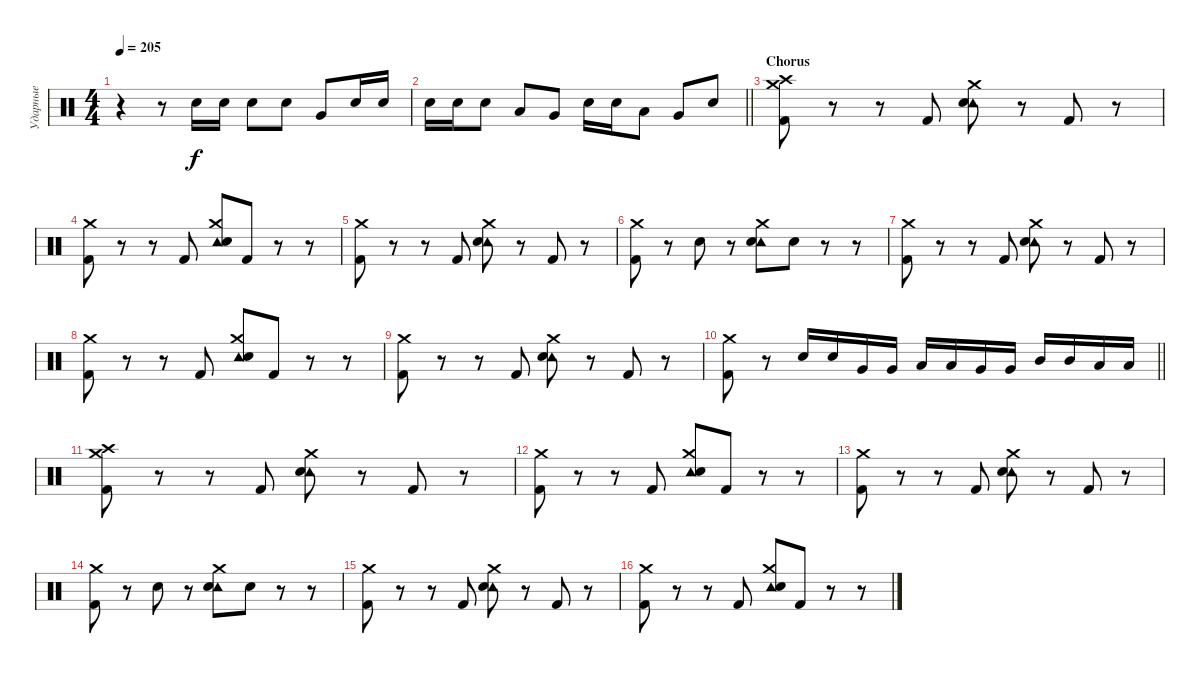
\track ("Ударные" "Ударные") {instrument percussion}
\staff {score}
\articulation defaults
\ts (4 4)
\tempo 205
\clef neutral
\ks c
r.4{dy f} r.8 "Electric Snare (hit)".16 "Electric Snare (hit)".16 "Electric Snare (hit)".8 "Electric Snare (hit)".8 "Very Low Tom (hit)".8 "Electric Snare (hit)".16 "Electric Snare (hit)".16 |
\barLineRight lightlight "Electric Snare (hit)".16 "Electric Snare (hit)".16 "Electric Snare (hit)".8 "Low Tom (hit)".8 "Very Low Tom (hit)".8 "Electric Snare (hit)".16 "Electric Snare (hit)".16 "Low Tom (hit)".8 "Very Low Tom (hit)".8 "Electric Snare (hit)".8
|
\section ("" "Chorus")
("Crash high (hit)" "Crash medium (hit)" "Kick (hit) 2").8 r.8 r.8 "Kick (hit) 2".8 ("Crash medium (hit)" "Tambourine (hit)" "Electric Snare (hit)").8 r.8 "Kick (hit) 2".8 r.8 |
("Crash medium (hit)" "Kick (hit) 2").8 r.8 r.8 "Kick (hit) 2".8 ("Crash medium (hit)" "Tambourine (hit)" "Electric Snare (hit)").8 "Kick (hit) 2".8 r.8 r.8 |
("Crash medium (hit)" "Kick (hit) 2").8 r.8 r.8 "Kick (hit) 2".8 ("Crash medium (hit)" "Tambourine (hit)" "Electric Snare (hit)").8 r.8 "Kick (hit) 2".8 r.8 |
("Crash medium (hit)" "Kick (hit) 2").8 r.8 "Electric Snare (hit)".8 r.8 ("Crash medium (hit)" "Tambourine (hit)" "Electric Snare (hit)").8 "Electric Snare (hit)".8 r.8 r.8 |
("Crash medium (hit)" "Kick (hit) 2").8 r.8 r.8 "Kick (hit) 2".8 ("Crash medium (hit)" "Tambourine (hit)" "Electric Snare (hit)").8 r.8 "Kick (hit) 2".8 r.8 |
("Crash medium (hit)" "Kick (hit) 2").8 r.8 r.8 "Kick (hit) 2".8 ("Crash medium (hit)" "Tambourine (hit)" "Electric Snare (hit)").8 "Kick (hit) 2".8 r.8 r.8 |
("Crash medium (hit)" "Kick (hit) 2").8 r.8 r.8 "Kick (hit) 2".8 ("Crash medium (hit)" "Tambourine (hit)" "Electric Snare (hit)").8 r.8 "Kick (hit) 2".8 r.8 |
\barLineRight lightlight
("Crash medium (hit)" "Kick (hit) 2").8 r.8 "Electric Snare (hit)".16 "Electric Snare (hit)".16 "Very Low Tom (hit)".16 "Very Low Tom (hit)".16 "Low Tom (hit)".16 "Low Tom (hit)".16 "Very Low Tom (hit)".16 "Very Low Tom (hit)".16 "Mid Tom (hit)".16 "Mid Tom (hit)".16 "Low Tom (hit)".16 "Low Tom (hit)".16 |
("Crash high (hit)" "Crash medium (hit)" "Kick (hit) 2").8 r.8 r.8 "Kick (hit) 2".8 ("Crash medium (hit)" "Tambourine (hit)" "Electric Snare (hit)").8 r.8 "Kick (hit) 2".8 r.8 |
("Crash medium (hit)" "Kick (hit) 2").8 r.8 r.8 "Kick (hit) 2".8 ("Crash medium (hit)" "Tambourine (hit)" "Electric Snare (hit)").8 "Kick (hit) 2".8 r.8 r.8 |
("Crash medium (hit)" "Kick (hit) 2").8 r.8 r.8 "Kick (hit) 2".8 ("Crash medium (hit)" "Tambourine (hit)" "Electric Snare (hit)").8 r.8 "Kick (hit) 2".8 r.8 |
("Crash medium (hit)" "Kick (hit) 2").8 r.8 "Electric Snare (hit)".8 r.8 ("Crash medium (hit)" "Tambourine (hit)" "Electric Snare (hit)").8 "Electric Snare (hit)".8 r.8 r.8 |
("Crash medium (hit)" "Kick (hit) 2").8 r.8 r.8 "Kick (hit) 2".8 ("Crash medium (hit)" "Tambourine (hit)" "Electric Snare (hit)").8 r.8 "Kick (hit) 2".8 r.8 |
("Crash medium (hit)" "Kick (hit) 2").8 r.8 r.8 "Kick (hit) 2".8 ("Crash medium (hit)" "Tambourine (hit)" "Electric Snare (hit)").8 "Kick (hit) 2".8 r.8 r.8
